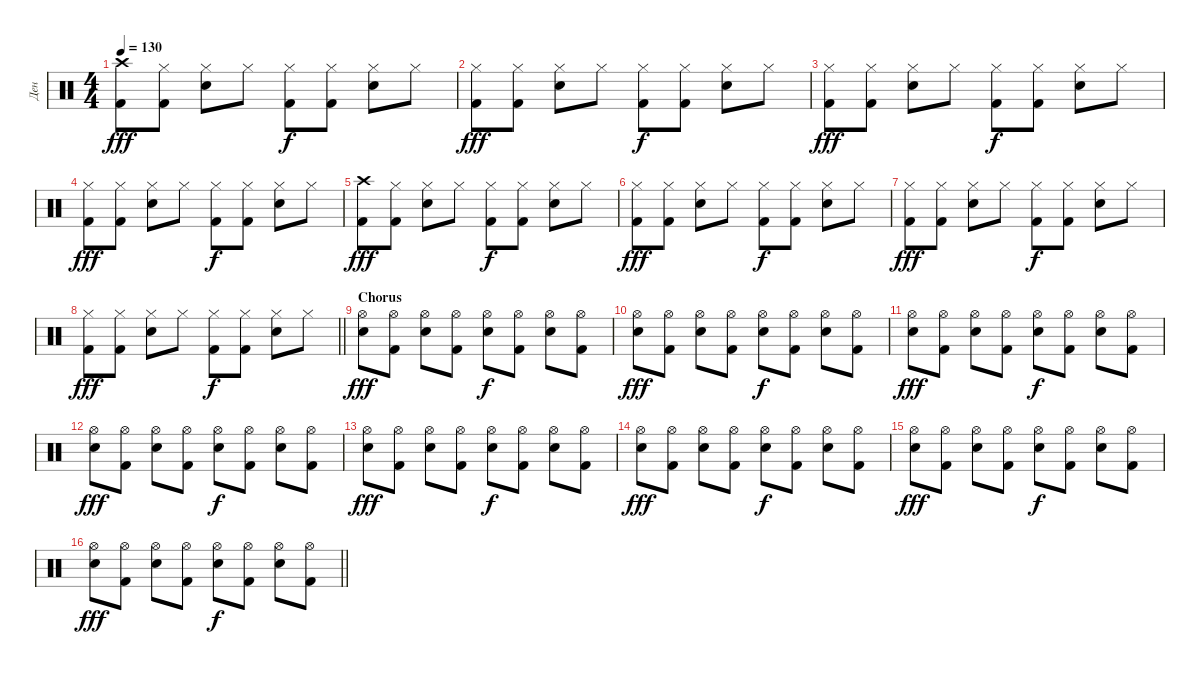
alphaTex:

\track ("Ден" "Ден") {instrument percussion}
\staff {score}
\articulation defaults
\ts (4 4)
\tempo 130
\clef neutral
\ks c
("Crash high (hit)" "Kick (hit) 2").8{dy fff} ("Hi-Hat (closed)" "Kick (hit) 2").8 ("Hi-Hat (closed)" "Snare (hit) 2").8 "Hi-Hat (closed)".8 ("Hi-Hat (closed)" "Kick (hit) 2").8{dy f} ("Hi-Hat (closed)" "Kick (hit) 2").8 ("Hi-Hat (closed)" "Snare (hit) 2").8 "Hi-Hat (closed)".8 |
("Hi-Hat (closed)" "Kick (hit) 2").8{dy fff} ("Hi-Hat (closed)" "Kick (hit) 2").8 ("Hi-Hat (closed)" "Snare (hit) 2").8 "Hi-Hat (closed)".8 ("Hi-Hat (closed)" "Kick (hit) 2").8{dy f} ("Hi-Hat (closed)" "Kick (hit) 2").8 ("Hi-Hat (closed)" "Snare (hit) 2").8 "Hi-Hat (closed)".8 |
("Hi-Hat (closed)" "Kick (hit) 2").8{dy fff} ("Hi-Hat (closed)" "Kick (hit) 2").8 ("Hi-Hat (closed)" "Snare (hit) 2").8 "Hi-Hat (closed)".8 ("Hi-Hat (closed)" "Kick (hit) 2").8{dy f} ("Hi-Hat (closed)" "Kick (hit) 2").8 ("Hi-Hat (closed)" "Snare (hit) 2").8 "Hi-Hat (closed)".8 |
("Hi-Hat (closed)" "Kick (hit) 2").8{dy fff} ("Hi-Hat (closed)" "Kick (hit) 2").8 ("Hi-Hat (closed)" "Snare (hit) 2").8 "Hi-Hat (closed)".8 ("Hi-Hat (closed)" "Kick (hit) 2").8{dy f} ("Hi-Hat (closed)" "Kick (hit) 2").8 ("Hi-Hat (closed)" "Snare (hit) 2").8 "Hi-Hat (closed)".8 |
("Crash high (hit)" "Kick (hit) 2").8{dy fff} ("Hi-Hat (closed)" "Kick (hit) 2").8 ("Hi-Hat (closed)" "Snare (hit) 2").8 "Hi-Hat (closed)".8 ("Hi-Hat (closed)" "Kick (hit) 2").8{dy f} ("Hi-Hat (closed)" "Kick (hit) 2").8 ("Hi-Hat (closed)" "Snare (hit) 2").8 "Hi-Hat (closed)".8 |
("Hi-Hat (closed)" "Kick (hit) 2").8{dy fff} ("Hi-Hat (closed)" "Kick (hit) 2").8 ("Hi-Hat (closed)" "Snare (hit) 2").8 "Hi-Hat (closed)".8 ("Hi-Hat (closed)" "Kick (hit) 2").8{dy f} ("Hi-Hat (closed)" "Kick (hit) 2").8 ("Hi-Hat (closed)" "Snare (hit) 2").8 "Hi-Hat (closed)".8 |
("Hi-Hat (closed)" "Kick (hit) 2").8{dy fff} ("Hi-Hat (closed)" "Kick (hit) 2").8 ("Hi-Hat (closed)" "Snare (hit) 2").8 "Hi-Hat (closed)".8 ("Hi-Hat (closed)" "Kick (hit) 2").8{dy f} ("Hi-Hat (closed)" "Kick (hit) 2").8 ("Hi-Hat (closed)" "Snare (hit) 2").8 "Hi-Hat (closed)".8 |
\barLineRight lightlight
("Hi-Hat (closed)" "Kick (hit) 2").8{dy fff} ("Hi-Hat (closed)" "Kick (hit) 2").8 ("Hi-Hat (closed)" "Snare (hit) 2").8 "Hi-Hat (closed)".8 ("Hi-Hat (closed)" "Kick (hit) 2").8{dy f} ("Hi-Hat (closed)" "Kick (hit) 2").8 ("Hi-Hat (closed)" "Snare (hit) 2").8 "Hi-Hat (closed)".8 |
\section ("" "Chorus")
("Hi-Hat (open)" "Snare (hit) 2").8{dy fff} ("Hi-Hat (open)" "Kick (hit) 2").8 ("Hi-Hat (open)" "Snare (hit) 2").8 ("Hi-Hat (open)" "Kick (hit) 2").8 ("Hi-Hat (open)" "Snare (hit) 2").8{dy f} ("Hi-Hat (open)" "Kick (hit) 2").8 ("Hi-Hat (open)" "Snare (hit) 2").8 ("Hi-Hat (open)" "Kick (hit) 2").8 |
("Hi-Hat (open)" "Snare (hit) 2").8{dy fff} ("Hi-Hat (open)" "Kick (hit) 2").8 ("Hi-Hat (open)" "Snare (hit) 2").8 ("Hi-Hat (open)" "Kick (hit) 2").8 ("Hi-Hat (open)" "Snare (hit) 2").8{dy f} ("Hi-Hat (open)" "Kick (hit) 2").8 ("Hi-Hat (open)" "Snare (hit) 2").8 ("Hi-Hat (open)" "Kick (hit) 2").8 |
("Hi-Hat (open)" "Snare (hit) 2").8{dy fff} ("Hi-Hat (open)" "Kick (hit) 2").8 ("Hi-Hat (open)" "Snare (hit) 2").8 ("Hi-Hat (open)" "Kick (hit) 2").8 ("Hi-Hat (open)" "Snare (hit) 2").8{dy f} ("Hi-Hat (open)" "Kick (hit) 2").8 ("Hi-Hat (open)" "Snare (hit) 2").8 ("Hi-Hat (open)" "Kick (hit) 2").8 |
("Hi-Hat (open)" "Snare (hit) 2").8{dy fff} ("Hi-Hat (open)" "Kick (hit) 2").8 ("Hi-Hat (open)" "Snare (hit) 2").8 ("Hi-Hat (open)" "Kick (hit) 2").8 ("Hi-Hat (open)" "Snare (hit) 2").8{dy f} ("Hi-Hat (open)" "Kick (hit) 2").8 ("Hi-Hat (open)" "Snare (hit) 2").8 ("Hi-Hat (open)" "Kick (hit) 2").8 |
("Hi-Hat (open)" "Snare (hit) 2").8{dy fff} ("Hi-Hat (open)" "Kick (hit) 2").8 ("Hi-Hat (open)" "Snare (hit) 2").8 ("Hi-Hat (open)" "Kick (hit) 2").8 ("Hi-Hat (open)" "Snare (hit) 2").8{dy f} ("Hi-Hat (open)" "Kick (hit) 2").8 ("Hi-Hat (open)" "Snare (hit) 2").8 ("Hi-Hat (open)" "Kick (hit) 2").8 |
("Hi-Hat (open)" "Snare (hit) 2").8{dy fff} ("Hi-Hat (open)" "Kick (hit) 2").8 ("Hi-Hat (open)" "Snare (hit) 2").8 ("Hi-Hat (open)" "Kick (hit) 2").8 ("Hi-Hat (open)" "Snare (hit) 2").8{dy f} ("Hi-Hat (open)" "Kick (hit) 2").8 ("Hi-Hat (open)" "Snare (hit) 2").8 ("Hi-Hat (open)" "Kick (hit) 2").8 |
("Hi-Hat (open)" "Snare (hit) 2").8{dy fff} ("Hi-Hat (open)" "Kick (hit) 2").8 ("Hi-Hat (open)" "Snare (hit) 2").8 ("Hi-Hat (open)" "Kick (hit) 2").8 ("Hi-Hat (open)" "Snare (hit) 2").8{dy f} ("Hi-Hat (open)" "Kick (hit) 2").8 ("Hi-Hat (open)" "Snare (hit) 2").8 ("Hi-Hat (open)" "Kick (hit) 2").8 |
\barLineRight lightlight
("Hi-Hat (open)" "Snare (hit) 2").8{dy fff} ("Hi-Hat (open)" "Kick (hit) 2").8 ("Hi-Hat (open)" "Snare (hit) 2").8 ("Hi-Hat (open)" "Kick (hit) 2").8 ("Hi-Hat (open)" "Snare (hit) 2").8{dy f} ("Hi-Hat (open)" "Kick (hit) 2").8 ("Hi-Hat (open)" "Snare (hit) 2").8 ("Hi-Hat (open)" "Kick (hit) 2").8
